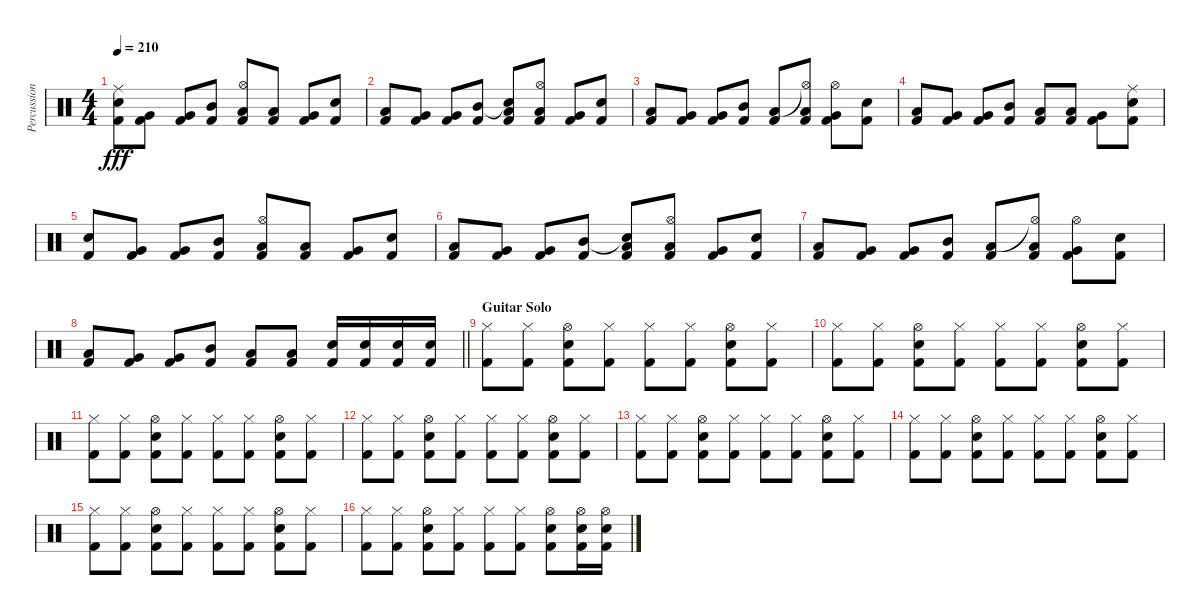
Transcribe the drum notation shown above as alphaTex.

\track ("Percussion" "Percussion") {instrument percussion}
\staff {score}
\articulation defaults
\ts (4 4)
\tempo 210
\clef neutral
\ks c
("Ride (middle)" "Electric Snare (hit)" "Kick (hit) 2").8{dy fff} ("Very Low Tom (hit)" "Kick (hit) 2").8 ("Very Low Tom (hit)" "Kick (hit) 2").8 ("Mid Tom (hit)" "Kick (hit) 2").8 ("Hi-Hat (open)" "Low Tom (hit)" "Kick (hit) 2").8 ("Low Tom (hit)" "Kick (hit) 2").8 ("Very Low Tom (hit)" "Kick (hit) 2").8 ("Electric Snare (hit)" "Kick (hit) 2").8 |
("Low Floor Tom (hit)" "Kick (hit) 2").8 ("Very Low Tom (hit)" "Kick (hit) 2").8 ("Very Low Tom (hit)" "Kick (hit) 2").8 ("Mid Tom (hit)" "Kick (hit) 2").8 ("Snare (hit)"{t} "Low Tom (hit)" "Kick (hit) 2").8 ("Hi-Hat (open)" "Low Tom (hit)" "Kick (hit) 2").8 ("Very Low Tom (hit)" "Kick (hit) 2").8 ("Electric Snare (hit)" "Kick (hit) 2").8 |
("Low Floor Tom (hit)" "Kick (hit) 2").8 ("Very Low Tom (hit)" "Kick (hit) 2").8 ("Very Low Tom (hit)" "Kick (hit) 2").8 ("Mid Tom (hit)" "Kick (hit) 2").8 ("Low Tom (hit)" "Kick (hit) 2").8 ("Hi-Hat (open)"{t} "Low Tom (hit)" "Kick (hit) 2").8 ("Hi-Hat (open)" "Very Low Tom (hit)" "Kick (hit) 2").8 ("Electric Snare (hit)" "Kick (hit) 2").8 |
("Low Floor Tom (hit)" "Kick (hit) 2").8 ("Very Low Tom (hit)" "Kick (hit) 2").8 ("Very Low Tom (hit)" "Kick (hit) 2").8 ("Mid Tom (hit)" "Kick (hit) 2").8 ("Low Tom (hit)" "Kick (hit) 2").8 ("Low Tom (hit)" "Kick (hit) 2").8 ("Very Low Tom (hit)" "Kick (hit) 2").8 ("Ride (middle)" "Electric Snare (hit)" "Kick (hit) 2").8 |
("Electric Snare (hit)" "Kick (hit) 2").8 ("Very Low Tom (hit)" "Kick (hit) 2").8 ("Very Low Tom (hit)" "Kick (hit) 2").8 ("Mid Tom (hit)" "Kick (hit) 2").8 ("Hi-Hat (open)" "Low Tom (hit)" "Kick (hit) 2").8 ("Low Tom (hit)" "Kick (hit) 2").8 ("Very Low Tom (hit)" "Kick (hit) 2").8 ("Electric Snare (hit)" "Kick (hit) 2").8 |
("Low Floor Tom (hit)" "Kick (hit) 2").8 ("Very Low Tom (hit)" "Kick (hit) 2").8 ("Very Low Tom (hit)" "Kick (hit) 2").8 ("Mid Tom (hit)" "Kick (hit) 2").8 ("Snare (hit)"{t} "Low Tom (hit)" "Kick (hit) 2").8 ("Hi-Hat (open)" "Low Tom (hit)" "Kick (hit) 2").8 ("Very Low Tom (hit)" "Kick (hit) 2").8 ("Electric Snare (hit)" "Kick (hit) 2").8 |
("Low Floor Tom (hit)" "Kick (hit) 2").8 ("Very Low Tom (hit)" "Kick (hit) 2").8 ("Very Low Tom (hit)" "Kick (hit) 2").8 ("Mid Tom (hit)" "Kick (hit) 2").8 ("Low Tom (hit)" "Kick (hit) 2").8 ("Hi-Hat (open)"{t} "Low Tom (hit)" "Kick (hit) 2").8 ("Hi-Hat (open)" "Very Low Tom (hit)" "Kick (hit) 2").8 ("Electric Snare (hit)" "Kick (hit) 2").8 |
\barLineRight lightlight
("Low Floor Tom (hit)" "Kick (hit) 2").8 ("Very Low Tom (hit)" "Kick (hit) 2").8 ("Very Low Tom (hit)" "Kick (hit) 2").8 ("Mid Tom (hit)" "Kick (hit) 2").8 ("Low Tom (hit)" "Kick (hit) 2").8 ("Low Tom (hit)" "Kick (hit) 2").8 ("Electric Snare (hit)" "Kick (hit) 2").16 ("Electric Snare (hit)" "Kick (hit) 2").16 ("Electric Snare (hit)" "Kick (hit) 2").16 ("Electric Snare (hit)" "Kick (hit) 2").16 |
\section ("" "Guitar Solo")
("Hi-Hat (closed)" "Kick (hit) 2").8 ("Hi-Hat (closed)" "Kick (hit) 2").8 ("Hi-Hat (open)" "Electric Snare (hit)" "Kick (hit) 2").8 ("Hi-Hat (closed)" "Kick (hit) 2").8 ("Hi-Hat (closed)" "Kick (hit) 2").8 ("Hi-Hat (closed)" "Kick (hit) 2").8 ("Hi-Hat (open)" "Electric Snare (hit)" "Kick (hit) 2").8 ("Hi-Hat (closed)" "Kick (hit) 2").8 |
("Hi-Hat (closed)" "Kick (hit) 2").8 ("Hi-Hat (closed)" "Kick (hit) 2").8 ("Hi-Hat (open)" "Electric Snare (hit)" "Kick (hit) 2").8 ("Hi-Hat (closed)" "Kick (hit) 2").8 ("Hi-Hat (closed)" "Kick (hit) 2").8 ("Hi-Hat (closed)" "Kick (hit) 2").8 ("Hi-Hat (open)" "Electric Snare (hit)" "Kick (hit) 2").8 ("Hi-Hat (closed)" "Kick (hit) 2").8 |
("Hi-Hat (closed)" "Kick (hit) 2").8 ("Hi-Hat (closed)" "Kick (hit) 2").8 ("Hi-Hat (open)" "Electric Snare (hit)" "Kick (hit) 2").8 ("Hi-Hat (closed)" "Kick (hit) 2").8 ("Hi-Hat (closed)" "Kick (hit) 2").8 ("Hi-Hat (closed)" "Kick (hit) 2").8 ("Hi-Hat (open)" "Electric Snare (hit)" "Kick (hit) 2").8 ("Hi-Hat (closed)" "Kick (hit) 2").8 |
("Hi-Hat (closed)" "Kick (hit) 2").8 ("Hi-Hat (closed)" "Kick (hit) 2").8 ("Hi-Hat (open)" "Electric Snare (hit)" "Kick (hit) 2").8 ("Hi-Hat (closed)" "Kick (hit) 2").8 ("Hi-Hat (closed)" "Kick (hit) 2").8 ("Hi-Hat (closed)" "Kick (hit) 2").8 ("Hi-Hat (open)" "Electric Snare (hit)" "Kick (hit) 2").8 ("Hi-Hat (closed)" "Kick (hit) 2").8 |
("Hi-Hat (closed)" "Kick (hit) 2").8 ("Hi-Hat (closed)" "Kick (hit) 2").8 ("Hi-Hat (open)" "Electric Snare (hit)" "Kick (hit) 2").8 ("Hi-Hat (closed)" "Kick (hit) 2").8 ("Hi-Hat (closed)" "Kick (hit) 2").8 ("Hi-Hat (closed)" "Kick (hit) 2").8 ("Hi-Hat (open)" "Electric Snare (hit)" "Kick (hit) 2").8 ("Hi-Hat (closed)" "Kick (hit) 2").8 |
("Hi-Hat (closed)" "Kick (hit) 2").8 ("Hi-Hat (closed)" "Kick (hit) 2").8 ("Hi-Hat (open)" "Electric Snare (hit)" "Kick (hit) 2").8 ("Hi-Hat (closed)" "Kick (hit) 2").8 ("Hi-Hat (closed)" "Kick (hit) 2").8 ("Hi-Hat (closed)" "Kick (hit) 2").8 ("Hi-Hat (open)" "Electric Snare (hit)" "Kick (hit) 2").8 ("Hi-Hat (closed)" "Kick (hit) 2").8 |
("Hi-Hat (closed)" "Kick (hit) 2").8 ("Hi-Hat (closed)" "Kick (hit) 2").8 ("Hi-Hat (open)" "Electric Snare (hit)" "Kick (hit) 2").8 ("Hi-Hat (closed)" "Kick (hit) 2").8 ("Hi-Hat (closed)" "Kick (hit) 2").8 ("Hi-Hat (closed)" "Kick (hit) 2").8 ("Hi-Hat (open)" "Electric Snare (hit)" "Kick (hit) 2").8 ("Hi-Hat (closed)" "Kick (hit) 2").8 |
("Hi-Hat (closed)" "Kick (hit) 2").8 ("Hi-Hat (closed)" "Kick (hit) 2").8 ("Hi-Hat (open)" "Electric Snare (hit)" "Kick (hit) 2").8 ("Hi-Hat (closed)" "Kick (hit) 2").8 ("Hi-Hat (closed)" "Kick (hit) 2").8 ("Hi-Hat (closed)" "Kick (hit) 2").8 ("Hi-Hat (open)" "Electric Snare (hit)" "Kick (hit) 2").8 ("Hi-Hat (open)" "Electric Snare (hit)" "Kick (hit) 2").16 ("Hi-Hat (open)" "Electric Snare (hit)" "Kick (hit) 2").16
